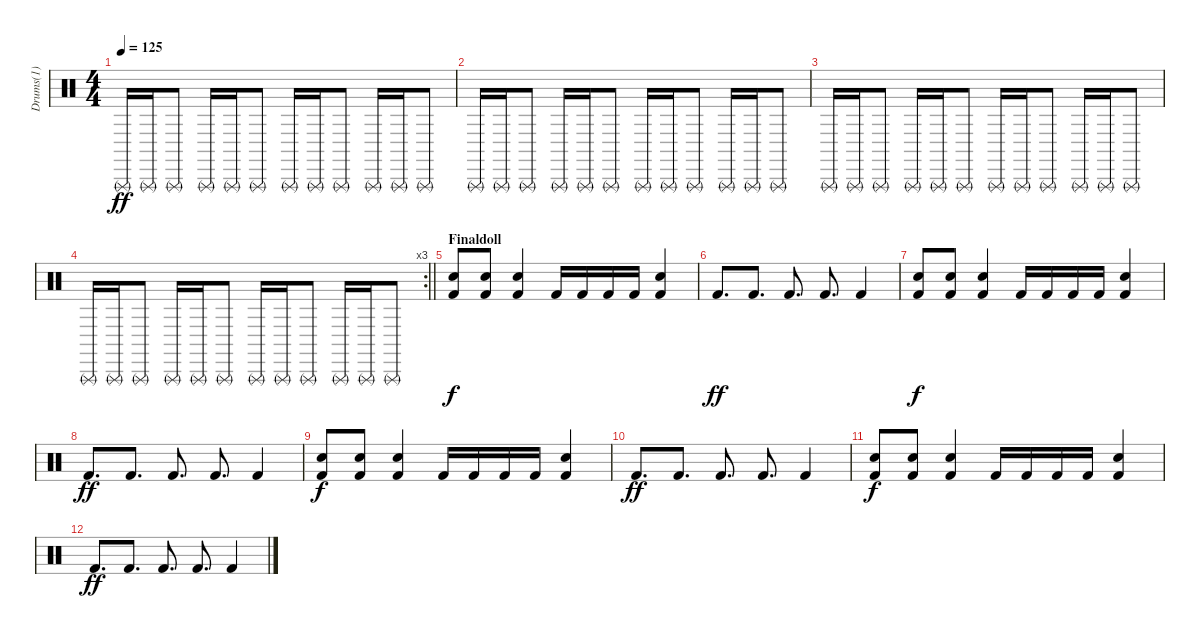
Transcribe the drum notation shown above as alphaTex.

\track ("Drums(1)" "Drums(1)") {instrument percussion}
\staff {score}
\articulation defaults
\ts (4 4)
\tempo 125
\clef neutral
\ks c "Triangle (rnute)".16{dy ff} "Triangle (rnute)".16 "Triangle (rnute)".8 "Triangle (rnute)".16 "Triangle (rnute)".16 "Triangle (rnute)".8 "Triangle (rnute)".16 "Triangle (rnute)".16 "Triangle (rnute)".8 "Triangle (rnute)".16 "Triangle (rnute)".16 "Triangle (rnute)".8
|
"Triangle (rnute)".16 "Triangle (rnute)".16 "Triangle (rnute)".8 "Triangle (rnute)".16 "Triangle (rnute)".16 "Triangle (rnute)".8 "Triangle (rnute)".16 "Triangle (rnute)".16 "Triangle (rnute)".8 "Triangle (rnute)".16 "Triangle (rnute)".16 "Triangle (rnute)".8 |
"Triangle (rnute)".16 "Triangle (rnute)".16 "Triangle (rnute)".8 "Triangle (rnute)".16 "Triangle (rnute)".16 "Triangle (rnute)".8 "Triangle (rnute)".16 "Triangle (rnute)".16 "Triangle (rnute)".8 "Triangle (rnute)".16 "Triangle (rnute)".16 "Triangle (rnute)".8 |
\rc 3
\barLineRight lightlight "Triangle (rnute)".16 "Triangle (rnute)".16 "Triangle (rnute)".8 "Triangle (rnute)".16 "Triangle (rnute)".16 "Triangle (rnute)".8 "Triangle (rnute)".16 "Triangle (rnute)".16 "Triangle (rnute)".8 "Triangle (rnute)".16 "Triangle (rnute)".16 "Triangle (rnute)".8
|
\section ("" "Finaldoll")
("Snare (hit) 2" "Kick (hit) 2").8{dy f} ("Snare (hit) 2" "Kick (hit) 2").8 ("Snare (hit) 2" "Kick (hit) 2").4 "Kick (hit) 2".16 "Kick (hit) 2".16 "Kick (hit) 2".16 "Kick (hit) 2".16 ("Snare (hit) 2" "Kick (hit) 2").4 |
"Kick (hit) 2".8{d dy ff} "Kick (hit) 2".8{d} "Kick (hit) 2".8{d} "Kick (hit) 2".8{d} "Kick (hit) 2".4 |
("Snare (hit) 2" "Kick (hit) 2").8{dy f} ("Snare (hit) 2" "Kick (hit) 2").8 ("Snare (hit) 2" "Kick (hit) 2").4 "Kick (hit) 2".16 "Kick (hit) 2".16 "Kick (hit) 2".16 "Kick (hit) 2".16 ("Snare (hit) 2" "Kick (hit) 2").4 |
"Kick (hit) 2".8{d dy ff} "Kick (hit) 2".8{d} "Kick (hit) 2".8{d} "Kick (hit) 2".8{d} "Kick (hit) 2".4 |
("Snare (hit) 2" "Kick (hit) 2").8{dy f} ("Snare (hit) 2" "Kick (hit) 2").8 ("Snare (hit) 2" "Kick (hit) 2").4 "Kick (hit) 2".16 "Kick (hit) 2".16 "Kick (hit) 2".16 "Kick (hit) 2".16 ("Snare (hit) 2" "Kick (hit) 2").4 |
"Kick (hit) 2".8{d dy ff} "Kick (hit) 2".8{d} "Kick (hit) 2".8{d} "Kick (hit) 2".8{d} "Kick (hit) 2".4 |
("Snare (hit) 2" "Kick (hit) 2").8{dy f} ("Snare (hit) 2" "Kick (hit) 2").8 ("Snare (hit) 2" "Kick (hit) 2").4 "Kick (hit) 2".16 "Kick (hit) 2".16 "Kick (hit) 2".16 "Kick (hit) 2".16 ("Snare (hit) 2" "Kick (hit) 2").4 |
"Kick (hit) 2".8{d dy ff} "Kick (hit) 2".8{d} "Kick (hit) 2".8{d} "Kick (hit) 2".8{d} "Kick (hit) 2".4
